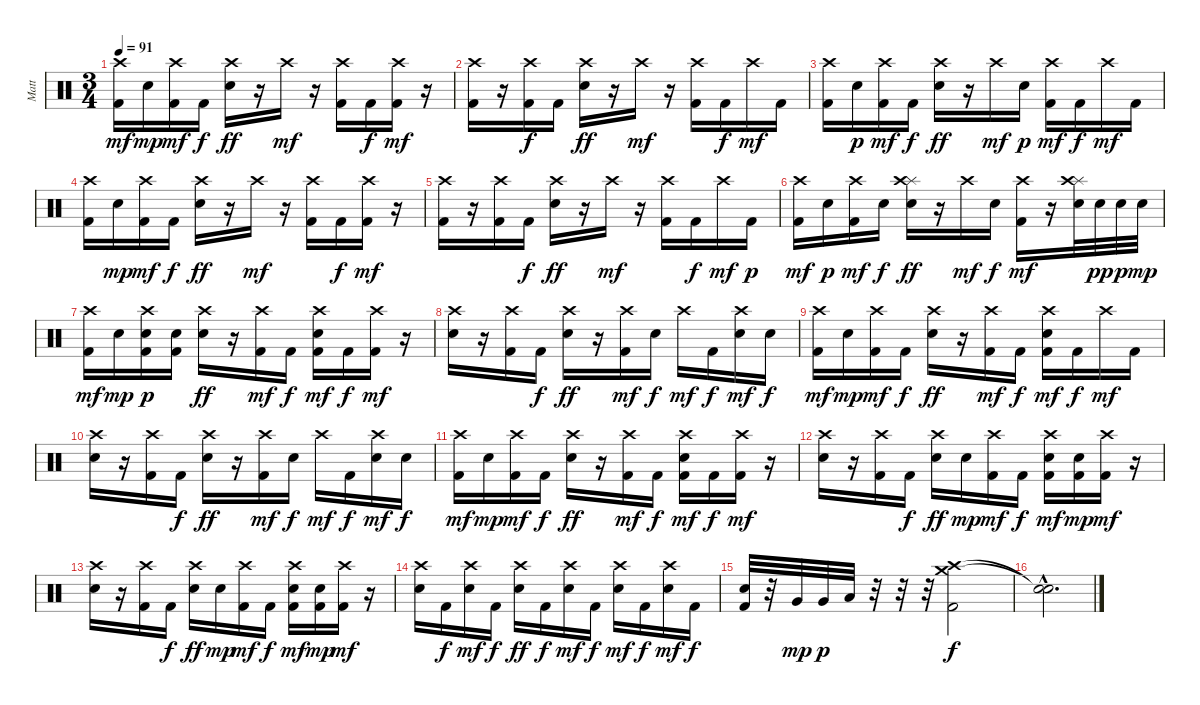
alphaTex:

\track ("Matt" "Matt") {instrument percussion}
\staff {score}
\articulation defaults
\ts (3 4)
\tempo 91
\clef neutral
\ks c
("Crash high (hit)" "Kick (hit) 2").16{dy mf} "Electric Snare (hit)".16{dy mp} ("Crash high (hit)" "Kick (hit) 2").16{dy mf} "Kick (hit) 2".16{dy f} ("Crash high (hit)" "Electric Snare (hit)").16{dy ff} r.16 "Crash high (hit)".16{dy mf} r.16 ("Crash high (hit)" "Kick (hit) 2").16 "Kick (hit) 2".16{dy f} ("Crash high (hit)" "Kick (hit) 2").16{dy mf} r.16 |
("Crash high (hit)" "Kick (hit) 2").16 r.16 ("Crash high (hit)" "Kick (hit) 2").16{dy f} "Kick (hit) 2".16 ("Crash high (hit)" "Electric Snare (hit)").16{dy ff} r.16 "Crash high (hit)".16{dy mf} r.16 ("Crash high (hit)" "Kick (hit) 2").16 "Kick (hit) 2".16{dy f} "Crash high (hit)".16{dy mf} "Kick (hit) 2".16 |
("Crash high (hit)" "Kick (hit) 2").16 "Electric Snare (hit)".16{dy p} ("Crash high (hit)" "Kick (hit) 2").16{dy mf} "Kick (hit) 2".16{dy f} ("Crash high (hit)" "Electric Snare (hit)").16{dy ff} r.16 "Crash high (hit)".16{dy mf} "Electric Snare (hit)".16{dy p} ("Crash high (hit)" "Kick (hit) 2").16{dy mf} "Kick (hit) 2".16{dy f} "Crash high (hit)".16{dy mf} "Kick (hit) 2".16 |
("Crash high (hit)" "Kick (hit) 2").16 "Electric Snare (hit)".16{dy mp} ("Crash high (hit)" "Kick (hit) 2").16{dy mf} "Kick (hit) 2".16{dy f} ("Crash high (hit)" "Electric Snare (hit)").16{dy ff} r.16 "Crash high (hit)".16{dy mf} r.16 ("Crash high (hit)" "Kick (hit) 2").16 "Kick (hit) 2".16{dy f} ("Crash high (hit)" "Kick (hit) 2").16{dy mf} r.16 |
("Crash high (hit)" "Kick (hit) 2").16 r.16 ("Crash high (hit)" "Kick (hit) 2").16 "Kick (hit) 2".16{dy f} ("Crash high (hit)" "Electric Snare (hit)").16{dy ff} r.16 "Crash high (hit)".16{dy mf} r.16 ("Crash high (hit)" "Kick (hit) 2").16 "Kick (hit) 2".16{dy f} "Crash high (hit)".16{dy mf} "Kick (hit) 2".16{dy p} |
("Crash high (hit)" "Kick (hit) 2").16{dy mf} "Electric Snare (hit)".16{dy p} ("Crash high (hit)" "Kick (hit) 2").16{dy mf} "Electric Snare (hit)".16{dy f} ("Splash (hit)" "Crash high (hit)" "Electric Snare (hit)").16{dy ff} r.16 "Crash high (hit)".16{dy mf} "Electric Snare (hit)".16{dy f} ("Crash high (hit)" "Kick (hit) 2").16{dy mf} r.16 ("Splash (hit)" "Crash high (hit)" "Electric Snare (hit)").32 "Electric Snare (hit)".32{dy pp} "Electric Snare (hit)".32{dy p} "Electric Snare (hit)".32{dy mp} |
("Crash high (hit)" "Kick (hit) 2").16{dy mf} "Electric Snare (hit)".16{dy mp} ("Crash high (hit)" "Electric Snare (hit)" "Kick (hit) 2").16{dy p} ("Electric Snare (hit)" "Kick (hit) 2").16 ("Crash high (hit)" "Electric Snare (hit)").16{dy ff} r.16 ("Crash high (hit)" "Kick (hit) 2").16{dy mf} "Kick (hit) 2".16{dy f} ("Crash high (hit)" "Electric Snare (hit)" "Kick (hit) 2").16{dy mf} "Kick (hit) 2".16{dy f} ("Crash high (hit)" "Kick (hit) 2").16{dy mf} r.16 |
("Crash high (hit)" "Electric Snare (hit)").16 r.16 ("Crash high (hit)" "Kick (hit) 2").16 "Kick (hit) 2".16{dy f} ("Crash high (hit)" "Electric Snare (hit)").16{dy ff} r.16 ("Crash high (hit)" "Kick (hit) 2").16{dy mf} "Electric Snare (hit)".16{dy f} "Crash high (hit)".16{dy mf} "Kick (hit) 2".16{dy f} ("Crash high (hit)" "Electric Snare (hit)").16{dy mf} "Electric Snare (hit)".16{dy f} |
("Crash high (hit)" "Kick (hit) 2").16{dy mf} "Electric Snare (hit)".16{dy mp} ("Crash high (hit)" "Kick (hit) 2").16{dy mf} "Kick (hit) 2".16{dy f} ("Crash high (hit)" "Electric Snare (hit)").16{dy ff} r.16 ("Crash high (hit)" "Kick (hit) 2").16{dy mf} "Kick (hit) 2".16{dy f} ("Crash high (hit)" "Electric Snare (hit)" "Kick (hit) 2").16{dy mf} "Kick (hit) 2".16{dy f} "Crash high (hit)".16{dy mf} "Kick (hit) 2".16 |
("Crash high (hit)" "Electric Snare (hit)").16 r.16 ("Crash high (hit)" "Kick (hit) 2").16 "Kick (hit) 2".16{dy f} ("Crash high (hit)" "Electric Snare (hit)").16{dy ff} r.16 ("Crash high (hit)" "Kick (hit) 2").16{dy mf} "Electric Snare (hit)".16{dy f} "Crash high (hit)".16{dy mf} "Kick (hit) 2".16{dy f} ("Crash high (hit)" "Electric Snare (hit)").16{dy mf} "Electric Snare (hit)".16{dy f} |
("Crash high (hit)" "Kick (hit) 2").16{dy mf} "Electric Snare (hit)".16{dy mp} ("Crash high (hit)" "Kick (hit) 2").16{dy mf} "Kick (hit) 2".16{dy f} ("Crash high (hit)" "Electric Snare (hit)").16{dy ff} r.16 ("Crash high (hit)" "Kick (hit) 2").16{dy mf} "Kick (hit) 2".16{dy f} ("Crash high (hit)" "Electric Snare (hit)" "Kick (hit) 2").16{dy mf} "Kick (hit) 2".16{dy f} ("Crash high (hit)" "Kick (hit) 2").16{dy mf} r.16 |
("Crash high (hit)" "Electric Snare (hit)").16 r.16 ("Crash high (hit)" "Kick (hit) 2").16 "Kick (hit) 2".16{dy f} ("Crash high (hit)" "Electric Snare (hit)").16{dy ff} "Electric Snare (hit)".16{dy mp} ("Crash high (hit)" "Kick (hit) 2").16{dy mf} "Kick (hit) 2".16{dy f} ("Crash high (hit)" "Electric Snare (hit)" "Kick (hit) 2").16{dy mf} ("Electric Snare (hit)" "Kick (hit) 2").16{dy mp} ("Crash high (hit)" "Kick (hit) 2").16{dy mf} r.16 |
("Crash high (hit)" "Electric Snare (hit)").16 r.16 ("Crash high (hit)" "Kick (hit) 2").16 "Kick (hit) 2".16{dy f} ("Crash high (hit)" "Electric Snare (hit)").16{dy ff} "Electric Snare (hit)".16{dy mp} ("Crash high (hit)" "Kick (hit) 2").16{dy mf} "Kick (hit) 2".16{dy f} ("Crash high (hit)" "Electric Snare (hit)" "Kick (hit) 2").16{dy mf} ("Electric Snare (hit)" "Kick (hit) 2").16{dy mp} ("Crash high (hit)" "Kick (hit) 2").16{dy mf} r.16 |
("Crash high (hit)" "Electric Snare (hit)").16 "Kick (hit) 2".16{dy f} ("Crash high (hit)" "Electric Snare (hit)").16{dy mf} "Kick (hit) 2".16{dy f} ("Crash high (hit)" "Electric Snare (hit)").16{dy ff} "Kick (hit) 2".16{dy f} ("Crash high (hit)" "Electric Snare (hit)").16{dy mf} "Kick (hit) 2".16{dy f} ("Crash high (hit)" "Electric Snare (hit)").16{dy mf} "Kick (hit) 2".16{dy f} ("Crash high (hit)" "Electric Snare (hit)").16{dy mf} "Kick (hit) 2".16{dy f} |
("Electric Snare (hit)" "Kick (hit) 2").32 r.32 "Very Low Tom (hit)".32{dy mp} "Very Low Tom (hit)".32{dy p} "Low Floor Tom (hit)".32 r.32 r.32 r.32 ("Crash medium (hit)" "Crash high (hit)" "Kick (hit) 2").2{dy f} |
("Snare (hit)"{hac t} "Snare (hit)"{hac t}).2{d}
